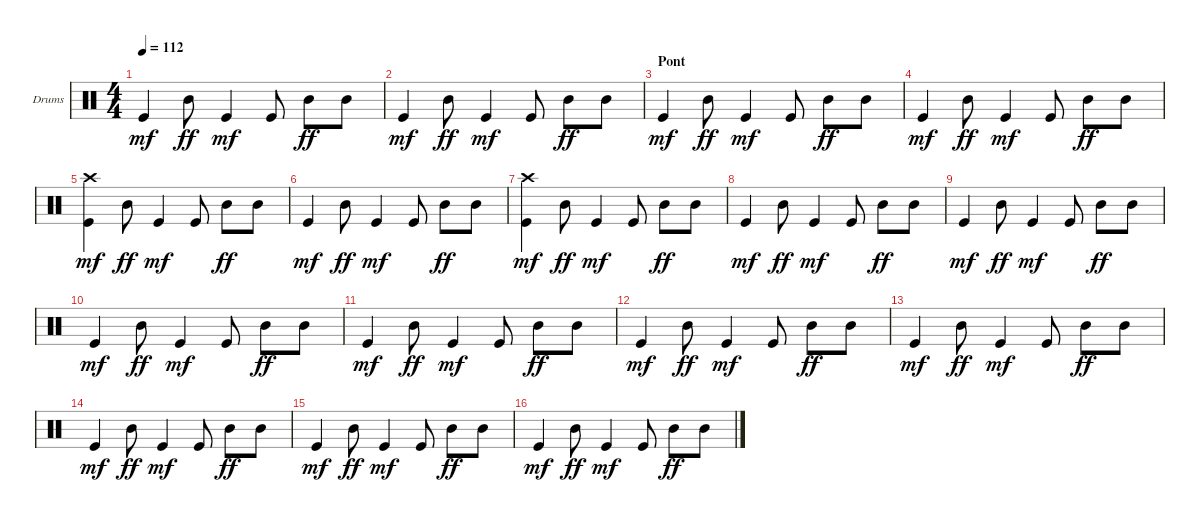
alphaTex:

\defaultSystemsLayout 4
\bracketExtendMode groupsimilarinstruments
\firstSystemTrackNameOrientation horizontal
\otherSystemsTrackNameOrientation horizontal
\track ("Drumkit" "Drums") {instrument percussion}
\staff {score}
\articulation defaults
\ts (4 4)
\tempo 112
\clef neutral
\scale
0.973518
\ks c "Kick (hit)".4{dy mf} "Mid Tom (hit)".8{dy ff} "Kick (hit)".4{dy mf} "Kick (hit)".8 "Mid Tom (hit)".8{dy ff} "Mid Tom (hit)".8
|
\scale
0.973518 "Kick (hit)".4{dy mf} "Mid Tom (hit)".8{dy ff} "Kick (hit)".4{dy mf} "Kick (hit)".8 "Mid Tom (hit)".8{dy ff} "Mid Tom (hit)".8 |
\section ("" "Pont")
"Kick (hit)".4{dy mf} "Mid Tom (hit)".8{dy ff} "Kick (hit)".4{dy mf} "Kick (hit)".8 "Mid Tom (hit)".8{dy ff} "Mid Tom (hit)".8 |
"Kick (hit)".4{dy mf} "Mid Tom (hit)".8{dy ff} "Kick (hit)".4{dy mf} "Kick (hit)".8 "Mid Tom (hit)".8{dy ff} "Mid Tom (hit)".8 |
\scale
1.07945 ("Kick (hit)" "Crash high (hit)").4{dy mf} "Mid Tom (hit)".8{dy ff} "Kick (hit)".4{dy mf} "Kick (hit)".8 "Mid Tom (hit)".8{dy ff} "Mid Tom (hit)".8 |
\scale
0.973518 "Kick (hit)".4{dy mf} "Mid Tom (hit)".8{dy ff} "Kick (hit)".4{dy mf} "Kick (hit)".8 "Mid Tom (hit)".8{dy ff} "Mid Tom (hit)".8 |
\scale
0.973518 ("Kick (hit)" "Crash high (hit)").4{dy mf} "Mid Tom (hit)".8{dy ff} "Kick (hit)".4{dy mf} "Kick (hit)".8 "Mid Tom (hit)".8{dy ff} "Mid Tom (hit)".8 |
\scale
0.973518 "Kick (hit)".4{dy mf} "Mid Tom (hit)".8{dy ff} "Kick (hit)".4{dy mf} "Kick (hit)".8 "Mid Tom (hit)".8{dy ff} "Mid Tom (hit)".8 |
\scale
1.07945 "Kick (hit)".4{dy mf} "Mid Tom (hit)".8{dy ff} "Kick (hit)".4{dy mf} "Kick (hit)".8 "Mid Tom (hit)".8{dy ff} "Mid Tom (hit)".8 |
\scale
0.973518 "Kick (hit)".4{dy mf} "Mid Tom (hit)".8{dy ff} "Kick (hit)".4{dy mf} "Kick (hit)".8 "Mid Tom (hit)".8{dy ff} "Mid Tom (hit)".8 |
\scale
0.973518 "Kick (hit)".4{dy mf} "Mid Tom (hit)".8{dy ff} "Kick (hit)".4{dy mf} "Kick (hit)".8 "Mid Tom (hit)".8{dy ff} "Mid Tom (hit)".8 |
\scale
0.973518 "Kick (hit)".4{dy mf} "Mid Tom (hit)".8{dy ff} "Kick (hit)".4{dy mf} "Kick (hit)".8 "Mid Tom (hit)".8{dy ff} "Mid Tom (hit)".8 |
\scale
1.07945 "Kick (hit)".4{dy mf} "Mid Tom (hit)".8{dy ff} "Kick (hit)".4{dy mf} "Kick (hit)".8 "Mid Tom (hit)".8{dy ff} "Mid Tom (hit)".8 |
\scale
0.973518 "Kick (hit)".4{dy mf} "Mid Tom (hit)".8{dy ff} "Kick (hit)".4{dy mf} "Kick (hit)".8 "Mid Tom (hit)".8{dy ff} "Mid Tom (hit)".8 |
\scale
0.973518 "Kick (hit)".4{dy mf} "Mid Tom (hit)".8{dy ff} "Kick (hit)".4{dy mf} "Kick (hit)".8 "Mid Tom (hit)".8{dy ff} "Mid Tom (hit)".8 |
\scale
0.973518 "Kick (hit)".4{dy mf} "Mid Tom (hit)".8{dy ff} "Kick (hit)".4{dy mf} "Kick (hit)".8 "Mid Tom (hit)".8{dy ff} "Mid Tom (hit)".8
